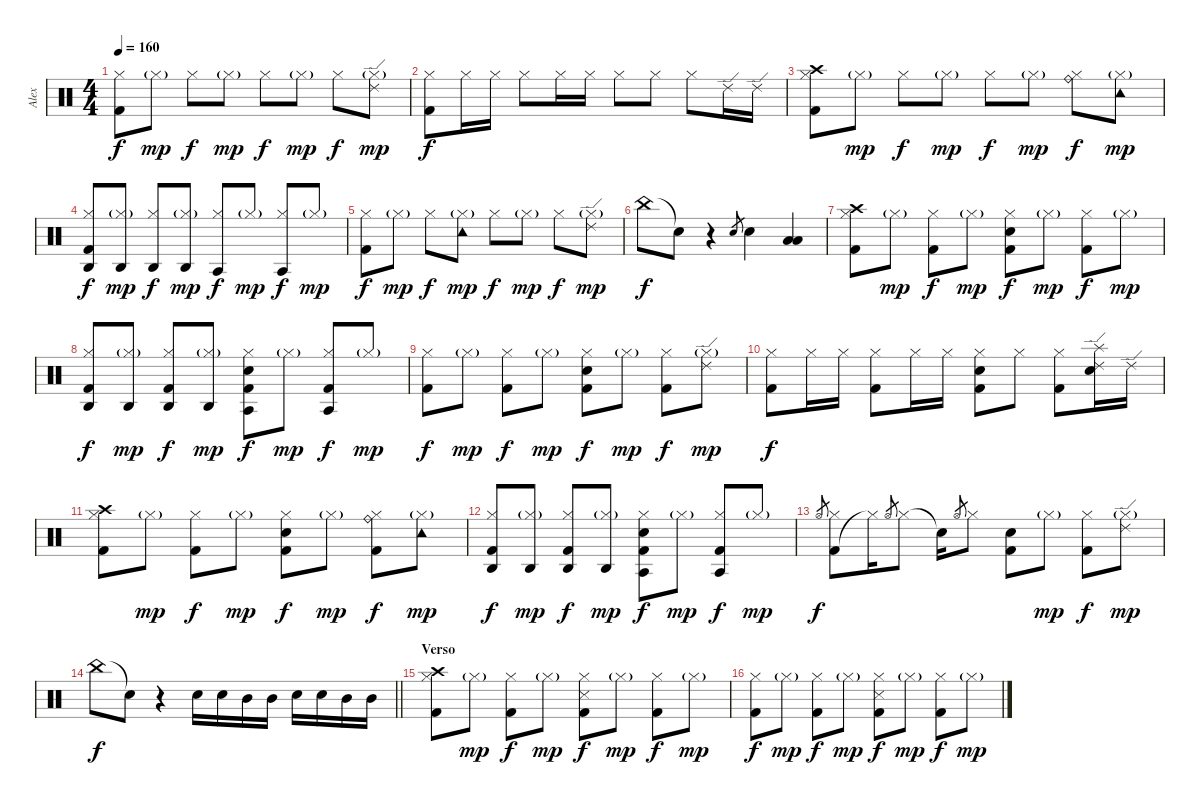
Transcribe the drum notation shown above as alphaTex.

\track ("Alex" "Alex") {instrument percussion}
\staff {score}
\articulation defaults
\ts (4 4)
\tempo 160
\clef neutral
\ks c
("Kick (hit) 2" "Hi-Hat (closed)").8{dy f} "Hi-Hat (closed)"{g}.8{dy mp} "Hi-Hat (closed)".8{dy f} "Hi-Hat (closed)"{g}.8{dy mp} "Hi-Hat (closed)".8{dy f} "Hi-Hat (closed)"{g}.8{dy mp} "Hi-Hat (closed)".8{dy f} ("Hi-Hat (closed)"{g} "Ride (edge) 2").8{dy mp} |
("Kick (hit) 2" "Hi-Hat (closed)").8{dy f} "Hi-Hat (closed)".16 "Hi-Hat (closed)".16 "Hi-Hat (closed)".8 "Hi-Hat (closed)".16 "Hi-Hat (closed)".16 "Hi-Hat (closed)".8 "Hi-Hat (closed)".8 "Hi-Hat (closed)".8 "Ride (edge) 2".16 "Ride (edge) 2".16 |
("Kick (hit) 2" "Hi-Hat (closed)" "Crash high (hit)").8 "Hi-Hat (closed)"{g}.8{dy mp} "Hi-Hat (closed)".8{dy f} "Hi-Hat (closed)"{g}.8{dy mp} "Hi-Hat (closed)".8{dy f} "Hi-Hat (closed)"{g}.8{dy mp} ("Hi-Hat (closed)" "Ride (bell)").8{dy f} ("Hi-Hat (closed)"{g} "Tambourine (hit)").8{dy mp} |
("Kick (hit) 2" "Hi-Hat (closed)" "Agogo high (hit)").8{dy f} ("Hi-Hat (closed)"{g} "Agogo high (hit)").8{dy mp} ("Hi-Hat (closed)" "Agogo high (hit)").8{dy f} ("Hi-Hat (closed)"{g} "Agogo high (hit)").8{dy mp} ("Hi-Hat (closed)" "Agogo tow (hit)").8{dy f} "Hi-Hat (closed)"{g}.8{dy mp} ("Hi-Hat (closed)" "Agogo tow (hit)").8{dy f} "Hi-Hat (closed)"{g}.8{dy mp} |
("Kick (hit) 2" "Hi-Hat (closed)").8{dy f} "Hi-Hat (closed)"{g}.8{dy mp} "Hi-Hat (closed)".8{dy f} ("Hi-Hat (closed)"{g} "Tambourine (hit)").8{dy mp} "Hi-Hat (closed)".8{dy f} "Hi-Hat (closed)"{g}.8{dy mp} "Hi-Hat (closed)".8{dy f} ("Hi-Hat (closed)"{g} "Ride (edge) 2").8{dy mp} |
"China (hit)".8{dy f} "Snare (hit)"{t}.8 r.4 "Snare (hit) 2".8{gr} "Snare (hit) 2".4 ("Low Tom (hit)" "Low Tom (hit)").4 |
("Kick (hit) 2" "Hi-Hat (closed)" "Crash high (hit)").8 "Hi-Hat (closed)"{g}.8{dy mp} ("Kick (hit) 2" "Hi-Hat (closed)").8{dy f} "Hi-Hat (closed)"{g}.8{dy mp} ("Kick (hit) 2" "Hi-Hat (closed)" "Snare (hit) 2").8{dy f} "Hi-Hat (closed)"{g}.8{dy mp} ("Kick (hit) 2" "Hi-Hat (closed)").8{dy f} "Hi-Hat (closed)"{g}.8{dy mp} |
("Kick (hit) 2" "Hi-Hat (closed)" "Agogo high (hit)").8{dy f} ("Hi-Hat (closed)"{g} "Agogo high (hit)").8{dy mp} ("Kick (hit) 2" "Hi-Hat (closed)" "Agogo high (hit)").8{dy f} ("Hi-Hat (closed)"{g} "Agogo high (hit)").8{dy mp} ("Kick (hit) 2" "Hi-Hat (closed)" "Agogo tow (hit)" "Snare (hit) 2").8{dy f} "Hi-Hat (closed)"{g}.8{dy mp} ("Kick (hit) 2" "Hi-Hat (closed)" "Agogo tow (hit)").8{dy f} "Hi-Hat (closed)"{g}.8{dy mp} |
("Kick (hit) 2" "Hi-Hat (closed)").8{dy f} "Hi-Hat (closed)"{g}.8{dy mp} ("Kick (hit) 2" "Hi-Hat (closed)").8{dy f} "Hi-Hat (closed)"{g}.8{dy mp} ("Kick (hit) 2" "Hi-Hat (closed)" "Snare (hit) 2").8{dy f} "Hi-Hat (closed)"{g}.8{dy mp} ("Kick (hit) 2" "Hi-Hat (closed)").8{dy f} ("Hi-Hat (closed)"{g} "Ride (edge) 2").8{dy mp} |
("Kick (hit) 2" "Hi-Hat (closed)").8{dy f} "Hi-Hat (closed)".16 "Hi-Hat (closed)".16 ("Kick (hit) 2" "Hi-Hat (closed)").8 "Hi-Hat (closed)".16 "Hi-Hat (closed)".16 ("Kick (hit) 2" "Hi-Hat (closed)" "Snare (hit) 2").8 "Hi-Hat (closed)".8 ("Kick (hit) 2" "Hi-Hat (closed)").8 ("Ride (edge) 2" "Snare (hit) 2" "Splash (hit)").16 "Ride (edge) 2".16 |
("Kick (hit) 2" "Hi-Hat (closed)" "Crash high (hit)").8 "Hi-Hat (closed)"{g}.8{dy mp} ("Kick (hit) 2" "Hi-Hat (closed)").8{dy f} "Hi-Hat (closed)"{g}.8{dy mp} ("Kick (hit) 2" "Hi-Hat (closed)" "Snare (hit) 2").8{dy f} "Hi-Hat (closed)"{g}.8{dy mp} ("Kick (hit) 2" "Hi-Hat (closed)" "Ride (bell)").8{dy f} ("Hi-Hat (closed)"{g} "Tambourine (hit)").8{dy mp} |
("Kick (hit) 2" "Hi-Hat (closed)" "Agogo high (hit)").8{dy f} ("Hi-Hat (closed)"{g} "Agogo high (hit)").8{dy mp} ("Kick (hit) 2" "Hi-Hat (closed)" "Agogo high (hit)").8{dy f} ("Hi-Hat (closed)"{g} "Agogo high (hit)").8{dy mp} ("Kick (hit) 2" "Hi-Hat (closed)" "Agogo tow (hit)" "Snare (hit) 2").8{dy f} "Hi-Hat (closed)"{g}.8{dy mp} ("Kick (hit) 2" "Hi-Hat (closed)" "Agogo tow (hit)").8{dy f} "Hi-Hat (closed)"{g}.8{dy mp} |
"Hi-Hat (open)".8{gr dy f} ("Kick (hit) 2" "Hi-Hat (closed)").8 "Hi-Hat (closed)"{t}.16 "Hi-Hat (open)".8{gr} "Hi-Hat (closed)".8 "Snare (hit)"{t}.16 "Hi-Hat (open)".8{gr} "Hi-Hat (closed)".8 ("Kick (hit) 2" "Snare (hit) 2").8 "Hi-Hat (closed)"{g}.8{dy mp} ("Kick (hit) 2" "Hi-Hat (closed)").8{dy f} ("Hi-Hat (closed)"{g} "Ride (edge) 2").8{dy mp} |
\barLineRight lightlight "China (hit)".8{dy f} "Snare (hit)"{t}.8
r.4 "Snare (hit) 2".16 "Snare (hit) 2".16 "Mid Tom (hit)".16 "Mid Tom (hit)".16 "Snare (hit) 2".16 "Snare (hit) 2".16 "Mid Tom (hit)".16 "Mid Tom (hit)".16 |
\section ("" "Verso")
("Kick (hit) 2" "Hi-Hat (closed)" "Crash high (hit)").8 "Hi-Hat (closed)"{g}.8{dy mp} ("Kick (hit) 2" "Hi-Hat (closed)").8{dy f} "Hi-Hat (closed)"{g}.8{dy mp} ("Kick (hit) 2" "Hi-Hat (closed)" "Snare (side stick) 3").8{dy f} "Hi-Hat (closed)"{g}.8{dy mp} ("Kick (hit) 2" "Hi-Hat (closed)").8{dy f} "Hi-Hat (closed)"{g}.8{dy mp} |
("Kick (hit) 2" "Hi-Hat (closed)").8{dy f} "Hi-Hat (closed)"{g}.8{dy mp} ("Kick (hit) 2" "Hi-Hat (closed)").8{dy f} "Hi-Hat (closed)"{g}.8{dy mp} ("Kick (hit) 2" "Hi-Hat (closed)" "Snare (side stick) 3").8{dy f} "Hi-Hat (closed)"{g}.8{dy mp} ("Kick (hit) 2" "Hi-Hat (closed)").8{dy f} "Hi-Hat (closed)"{g}.8{dy mp}
